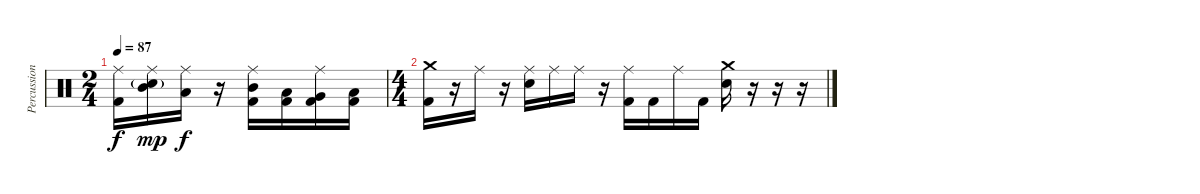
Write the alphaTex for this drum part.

\track ("Percussion" "Percussion") {instrument percussion}
\staff {score}
\articulation defaults
\ts (2 4)
\tempo 87
\clef neutral
\ks c
("Ride (middle)" "Kick (hit) 2").16{dy f} ("Ride (middle)" "Mid Tom (hit)" "Electric Snare (hit)"{g}).16{dy mp} ("Ride (middle)" "Low Tom (hit)").16{dy f} r.16 ("Ride (middle)" "Mid Tom (hit)" "Kick (hit) 2").16 ("Low Tom (hit)" "Kick (hit) 2").16 ("Ride (middle)" "Very Low Tom (hit)" "Kick (hit) 2").16 ("Low Tom (hit)" "Kick (hit) 2").16 |
\ts (4 4)
("Crash medium (hit)" "Kick (hit) 2").16 r.16 "Ride (middle)".16 r.16 ("Ride (middle)" "Electric Snare (hit)").16 "Ride (middle)".16 "Ride (middle)".16 r.16 ("Ride (middle)" "Kick (hit) 2").16 "Kick (hit) 2".16 "Ride (middle)".16 "Kick (hit) 2".16 ("Crash medium (hit)" "Electric Snare (hit)").16 r.16 r.16 r.16
